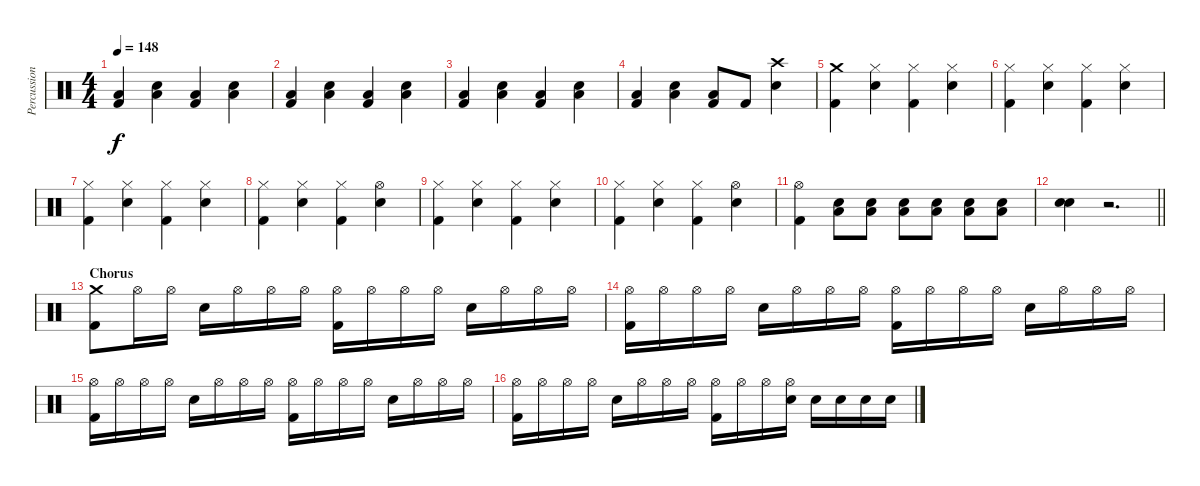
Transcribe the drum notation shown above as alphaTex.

\track ("Percussion" "Percussion") {instrument percussion}
\staff {score}
\articulation defaults
\ts (4 4)
\tempo 148
\clef neutral
\ks c
("Low Floor Tom (hit)" "Kick (hit) 2").4{dy f} ("Low Floor Tom (hit)" "Snare (hit) 2").4 ("Low Floor Tom (hit)" "Kick (hit) 2").4 ("Low Floor Tom (hit)" "Snare (hit) 2").4 |
("Low Floor Tom (hit)" "Kick (hit) 2").4 ("Low Floor Tom (hit)" "Snare (hit) 2").4 ("Low Floor Tom (hit)" "Kick (hit) 2").4 ("Low Floor Tom (hit)" "Snare (hit) 2").4 |
("Low Floor Tom (hit)" "Kick (hit) 2").4 ("Low Floor Tom (hit)" "Snare (hit) 2").4 ("Low Floor Tom (hit)" "Kick (hit) 2").4 ("Low Floor Tom (hit)" "Snare (hit) 2").4 |
("Low Floor Tom (hit)" "Kick (hit) 2").4 ("Low Floor Tom (hit)" "Snare (hit) 2").4 ("Low Floor Tom (hit)" "Kick (hit) 2").8 "Kick (hit) 2".8 ("Crash high (hit)" "Snare (hit) 2").4 |
("Crash medium (hit)" "Kick (hit) 2").4 ("Hi-Hat (closed)" "Snare (hit) 2").4 ("Hi-Hat (closed)" "Kick (hit) 2").4 ("Hi-Hat (closed)" "Snare (hit) 2").4 |
("Hi-Hat (closed)" "Kick (hit) 2").4 ("Hi-Hat (closed)" "Snare (hit) 2").4 ("Hi-Hat (closed)" "Kick (hit) 2").4 ("Hi-Hat (closed)" "Snare (hit) 2").4 |
("Hi-Hat (closed)" "Kick (hit) 2").4 ("Hi-Hat (closed)" "Snare (hit) 2").4 ("Hi-Hat (closed)" "Kick (hit) 2").4 ("Hi-Hat (closed)" "Snare (hit) 2").4 |
("Hi-Hat (closed)" "Kick (hit) 2").4 ("Hi-Hat (closed)" "Snare (hit) 2").4 ("Hi-Hat (closed)" "Kick (hit) 2").4 ("Hi-Hat (open)" "Snare (hit) 2").4 |
("Hi-Hat (closed)" "Kick (hit) 2").4 ("Hi-Hat (closed)" "Snare (hit) 2").4 ("Hi-Hat (closed)" "Kick (hit) 2").4 ("Hi-Hat (closed)" "Snare (hit) 2").4 |
("Hi-Hat (closed)" "Kick (hit) 2").4 ("Hi-Hat (closed)" "Snare (hit) 2").4 ("Hi-Hat (closed)" "Kick (hit) 2").4 ("Hi-Hat (open)" "Snare (hit) 2").4 |
("Hi-Hat (open)" "Kick (hit) 2").4 ("Low Floor Tom (hit)" "Snare (hit) 2").8 ("Low Floor Tom (hit)" "Snare (hit) 2").8 ("Low Floor Tom (hit)" "Snare (hit) 2").8 ("Low Floor Tom (hit)" "Snare (hit) 2").8 ("Low Floor Tom (hit)" "Snare (hit) 2").8 ("Low Floor Tom (hit)" "Snare (hit) 2").8 |
\barLineRight lightlight
("Snare (hit) 2" "Snare (hit) 2").4 r.2{d} |
\section ("" "Chorus")
("Crash medium (hit)" "Kick (hit) 2").8 "Hi-Hat (open)".16 "Hi-Hat (open)".16 "Snare (hit) 2".16 "Hi-Hat (open)".16 "Hi-Hat (open)".16 "Hi-Hat (open)".16 ("Hi-Hat (open)" "Kick (hit) 2").16 "Hi-Hat (open)".16 "Hi-Hat (open)".16 "Hi-Hat (open)".16 "Snare (hit) 2".16 "Hi-Hat (open)".16 "Hi-Hat (open)".16 "Hi-Hat (open)".16 |
("Hi-Hat (open)" "Kick (hit) 2").16 "Hi-Hat (open)".16 "Hi-Hat (open)".16 "Hi-Hat (open)".16 "Snare (hit) 2".16 "Hi-Hat (open)".16 "Hi-Hat (open)".16 "Hi-Hat (open)".16 ("Hi-Hat (open)" "Kick (hit) 2").16 "Hi-Hat (open)".16 "Hi-Hat (open)".16 "Hi-Hat (open)".16 "Snare (hit) 2".16 "Hi-Hat (open)".16 "Hi-Hat (open)".16 "Hi-Hat (open)".16 |
("Hi-Hat (open)" "Kick (hit) 2").16 "Hi-Hat (open)".16 "Hi-Hat (open)".16 "Hi-Hat (open)".16 "Snare (hit) 2".16 "Hi-Hat (open)".16 "Hi-Hat (open)".16 "Hi-Hat (open)".16 ("Hi-Hat (open)" "Kick (hit) 2").16 "Hi-Hat (open)".16 "Hi-Hat (open)".16 "Hi-Hat (open)".16 "Snare (hit) 2".16 "Hi-Hat (open)".16 "Hi-Hat (open)".16 "Hi-Hat (open)".16 |
("Hi-Hat (open)" "Kick (hit) 2").16 "Hi-Hat (open)".16 "Hi-Hat (open)".16 "Hi-Hat (open)".16 "Snare (hit) 2".16 "Hi-Hat (open)".16 "Hi-Hat (open)".16 "Hi-Hat (open)".16 ("Hi-Hat (open)" "Kick (hit) 2").16 "Hi-Hat (open)".16 "Hi-Hat (open)".16 ("Hi-Hat (open)" "Snare (hit) 2").16 "Snare (hit) 2".16 "Snare (hit) 2".16 "Snare (hit) 2".16 "Snare (hit) 2".16
